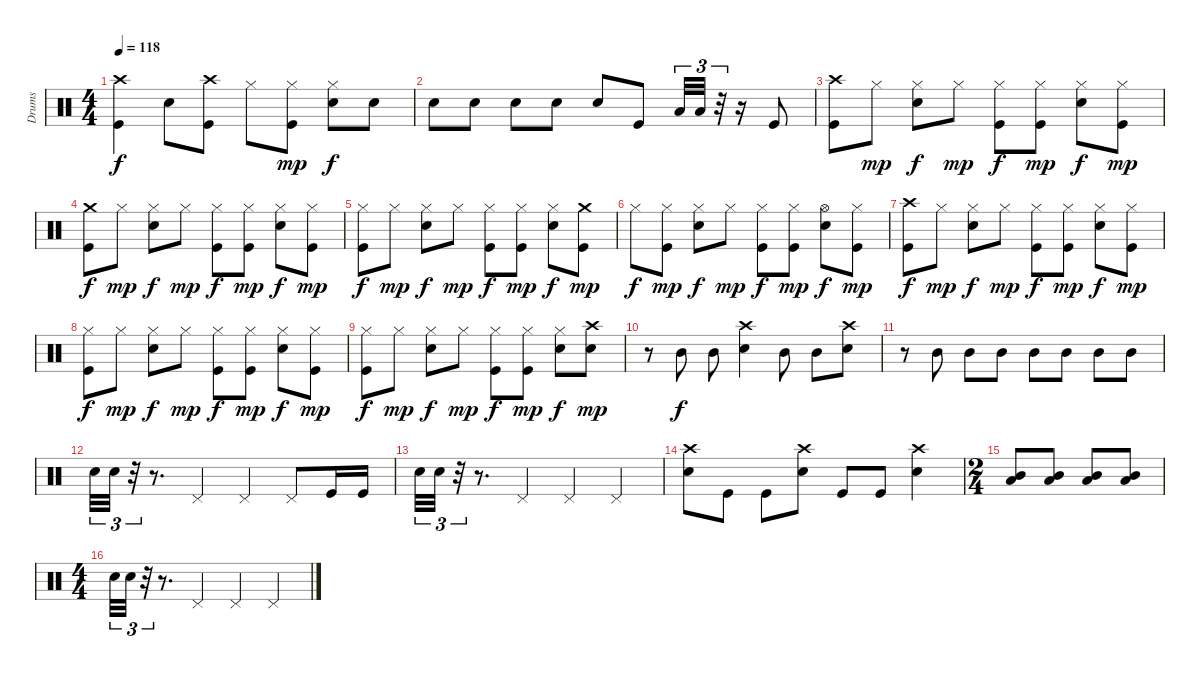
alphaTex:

\track ("Drums" "Drums") {instrument percussion}
\staff {score}
\articulation defaults
\ts (4 4)
\tempo 118
\clef neutral
\ks c
("Crash high (hit)" "Kick (hit)").4{dy f} "Snare (hit) 2".8 ("Crash high (hit)" "Kick (hit)").8 "Hi-Hat (closed)".8 ("Hi-Hat (closed)" "Kick (hit)").8{dy mp} ("Hi-Hat (closed)" "Snare (hit) 2").8{dy f} "Snare (hit) 2".8 |
"Snare (hit) 2".8 "Snare (hit) 2".8 "Snare (hit) 2".8 "Snare (hit) 2".8 "Snare (hit) 2".8 "Kick (hit)".8 "Low Tom (hit)".32{tu (3 2)} "Low Tom (hit)".32{tu (3 2)} r.32{tu (3 2)} r.16 "Kick (hit)".8 |
("Crash high (hit)" "Kick (hit)").8 "Hi-Hat (closed)".8{dy mp} ("Hi-Hat (closed)" "Snare (hit) 2").8{dy f} "Hi-Hat (closed)".8{dy mp} ("Hi-Hat (closed)" "Kick (hit)").8{dy f} ("Hi-Hat (closed)" "Kick (hit)").8{dy mp} ("Hi-Hat (closed)" "Snare (hit) 2").8{dy f} ("Hi-Hat (closed)" "Kick (hit)").8{dy mp} |
("Crash medium (hit)" "Kick (hit)").8{dy f} "Hi-Hat (closed)".8{dy mp} ("Hi-Hat (closed)" "Snare (hit) 2").8{dy f} "Hi-Hat (closed)".8{dy mp} ("Hi-Hat (closed)" "Kick (hit)").8{dy f} ("Hi-Hat (closed)" "Kick (hit)").8{dy mp} ("Hi-Hat (closed)" "Snare (hit) 2").8{dy f} ("Hi-Hat (closed)" "Kick (hit)").8{dy mp} |
("Hi-Hat (closed)" "Kick (hit)").8{dy f} "Hi-Hat (closed)".8{dy mp} ("Hi-Hat (closed)" "Snare (hit) 2").8{dy f} "Hi-Hat (closed)".8{dy mp} ("Hi-Hat (closed)" "Kick (hit)").8{dy f} ("Hi-Hat (closed)" "Kick (hit)").8{dy mp} ("Hi-Hat (closed)" "Snare (hit) 2").8{dy f} ("Crash medium (hit)" "Kick (hit)").8{dy mp} |
"Hi-Hat (closed)".8{dy f} ("Hi-Hat (closed)" "Kick (hit)").8{dy mp} ("Hi-Hat (closed)" "Snare (hit) 2").8{dy f} "Hi-Hat (closed)".8{dy mp} ("Hi-Hat (closed)" "Kick (hit)").8{dy f} ("Hi-Hat (closed)" "Kick (hit)").8{dy mp} ("Hi-Hat (open)" "Snare (hit) 2").8{dy f} ("Hi-Hat (closed)" "Kick (hit)").8{dy mp} |
("Crash high (hit)" "Kick (hit)").8{dy f} "Hi-Hat (closed)".8{dy mp} ("Hi-Hat (closed)" "Snare (hit) 2").8{dy f} "Hi-Hat (closed)".8{dy mp} ("Hi-Hat (closed)" "Kick (hit)").8{dy f} ("Hi-Hat (closed)" "Kick (hit)").8{dy mp} ("Hi-Hat (closed)" "Snare (hit) 2").8{dy f} ("Hi-Hat (closed)" "Kick (hit)").8{dy mp} |
("Hi-Hat (closed)" "Kick (hit)").8{dy f} "Hi-Hat (closed)".8{dy mp} ("Hi-Hat (closed)" "Snare (hit) 2").8{dy f} "Hi-Hat (closed)".8{dy mp} ("Hi-Hat (closed)" "Kick (hit)").8{dy f} ("Hi-Hat (closed)" "Kick (hit)").8{dy mp} ("Hi-Hat (closed)" "Snare (hit) 2").8{dy f} ("Hi-Hat (closed)" "Kick (hit)").8{dy mp} |
("Hi-Hat (closed)" "Kick (hit)").8{dy f} "Hi-Hat (closed)".8{dy mp} ("Hi-Hat (closed)" "Snare (hit) 2").8{dy f} "Hi-Hat (closed)".8{dy mp} ("Hi-Hat (closed)" "Kick (hit)").8{dy f} ("Hi-Hat (closed)" "Kick (hit)").8{dy mp} ("Hi-Hat (closed)" "Snare (hit) 2").8{dy f} ("Crash high (hit)" "Snare (hit) 2").8{dy mp} |
r.8 "Mid Tom (hit)".8{dy f} "Mid Tom (hit)".8 ("Crash high (hit)" "Snare (hit) 2").4 "Mid Tom (hit)".8 "Mid Tom (hit)".8 ("Crash high (hit)" "Snare (hit) 2").8 |
r.8 "Mid Tom (hit)".8 "Mid Tom (hit)".8 "Mid Tom (hit)".8 "Mid Tom (hit)".8 "Mid Tom (hit)".8 "Mid Tom (hit)".8 "Mid Tom (hit)".8 |
"Snare (hit) 2".32{tu (3 2)} "Snare (hit) 2".32{tu (3 2)} r.32{tu (3 2)} r.8{d} "Pedal Hi-Hat (hit)".4 "Pedal Hi-Hat (hit)".4 "Pedal Hi-Hat (hit)".8 "Kick (hit)".16 "Kick (hit)".16 |
"Snare (hit) 2".32{tu (3 2)} "Snare (hit) 2".32{tu (3 2)} r.32{tu (3 2)} r.8{d} "Pedal Hi-Hat (hit)".4 "Pedal Hi-Hat (hit)".4 "Pedal Hi-Hat (hit)".4 |
("Crash high (hit)" "Snare (hit) 2").8 "Kick (hit)".8 "Kick (hit)".8 ("Crash high (hit)" "Snare (hit) 2").8 "Kick (hit)".8 "Kick (hit)".8 ("Crash high (hit)" "Snare (hit) 2").4 |
\ts (2 4)
("Mid Tom (hit)" "Low Floor Tom (hit)").8 ("Mid Tom (hit)" "Low Floor Tom (hit)").8 ("Mid Tom (hit)" "Low Floor Tom (hit)").8 ("Mid Tom (hit)" "Low Floor Tom (hit)").8 |
\ts (4 4)
"Snare (hit) 2".32{tu (3 2)} "Snare (hit) 2".32{tu (3 2)} r.32{tu (3 2)} r.8{d} "Pedal Hi-Hat (hit)".4 "Pedal Hi-Hat (hit)".4 "Pedal Hi-Hat (hit)".4
